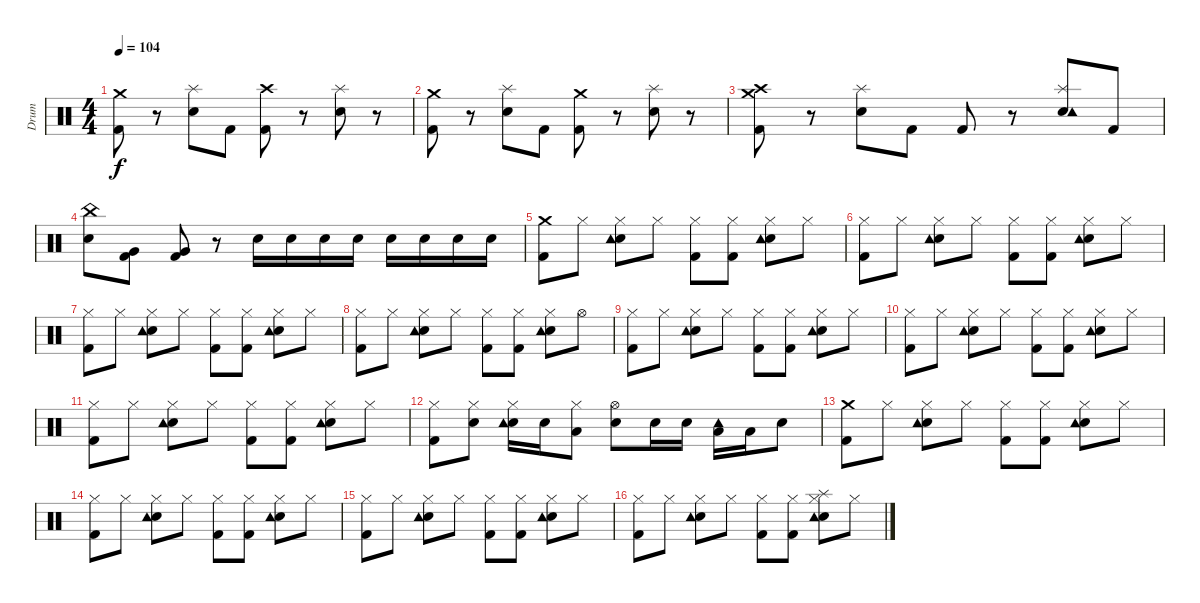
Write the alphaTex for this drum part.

\track ("Drum" "Drum") {instrument percussion}
\staff {score}
\articulation defaults
\ts (4 4)
\tempo 104
\clef neutral
\ks c
("Crash medium (hit)" "Kick (hit) 2").8{dy f} r.8 ("Snare (hit) 2" "Splash (hit)").8 "Kick (hit) 2".8 ("Crash high (hit)" "Kick (hit) 2").8 r.8 ("Snare (hit) 2" "Splash (hit)").8 r.8 |
("Crash medium (hit)" "Kick (hit) 2").8 r.8 ("Snare (hit) 2" "Splash (hit)").8 "Kick (hit) 2".8 ("Crash medium (hit)" "Kick (hit) 2").8 r.8 ("Snare (hit) 2" "Splash (hit)").8 r.8 |
("Crash medium (hit)" "Crash high (hit)" "Kick (hit) 2").8 r.8 ("Snare (hit) 2" "Splash (hit)").8 "Kick (hit) 2".8 "Kick (hit) 2".8 r.8 ("Snare (hit) 2" "Splash (hit)" "Tambourine (hit)").8 "Kick (hit) 2".8 |
("Snare (hit) 2" "China (hit)").8 ("Very Low Tom (hit)" "Kick (hit) 2").8 ("Very Low Tom (hit)" "Kick (hit) 2").8 r.8 "Snare (hit) 2".16 "Snare (hit) 2".16 "Snare (hit) 2".16 "Snare (hit) 2".16 "Snare (hit) 2".16 "Snare (hit) 2".16 "Snare (hit) 2".16 "Snare (hit) 2".16 |
("Crash medium (hit)" "Kick (hit) 2").8 "Hi-Hat (closed)".8 ("Snare (hit) 2" "Hi-Hat (closed)" "Tambourine (hit)").8 "Hi-Hat (closed)".8 ("Hi-Hat (closed)" "Kick (hit) 2").8 ("Hi-Hat (closed)" "Kick (hit) 2").8 ("Snare (hit) 2" "Hi-Hat (closed)" "Tambourine (hit)").8 "Hi-Hat (closed)".8 |
("Hi-Hat (closed)" "Kick (hit) 2").8 "Hi-Hat (closed)".8 ("Snare (hit) 2" "Hi-Hat (closed)" "Tambourine (hit)").8 "Hi-Hat (closed)".8 ("Hi-Hat (closed)" "Kick (hit) 2").8 ("Hi-Hat (closed)" "Kick (hit) 2").8 ("Snare (hit) 2" "Hi-Hat (closed)" "Tambourine (hit)").8 "Hi-Hat (closed)".8 |
("Hi-Hat (closed)" "Kick (hit) 2").8 "Hi-Hat (closed)".8 ("Snare (hit) 2" "Hi-Hat (closed)" "Tambourine (hit)").8 "Hi-Hat (closed)".8 ("Hi-Hat (closed)" "Kick (hit) 2").8 ("Hi-Hat (closed)" "Kick (hit) 2").8 ("Snare (hit) 2" "Hi-Hat (closed)" "Tambourine (hit)").8 "Hi-Hat (closed)".8 |
("Hi-Hat (closed)" "Kick (hit) 2").8 "Hi-Hat (closed)".8 ("Snare (hit) 2" "Hi-Hat (closed)" "Tambourine (hit)").8 "Hi-Hat (closed)".8 ("Hi-Hat (closed)" "Kick (hit) 2").8 ("Hi-Hat (closed)" "Kick (hit) 2").8 ("Snare (hit) 2" "Hi-Hat (closed)" "Tambourine (hit)").8 "Hi-Hat (open)".8 |
("Hi-Hat (closed)" "Kick (hit) 2").8 "Hi-Hat (closed)".8 ("Snare (hit) 2" "Hi-Hat (closed)" "Tambourine (hit)").8 "Hi-Hat (closed)".8 ("Hi-Hat (closed)" "Kick (hit) 2").8 ("Hi-Hat (closed)" "Kick (hit) 2").8 ("Snare (hit) 2" "Hi-Hat (closed)" "Tambourine (hit)").8 "Hi-Hat (closed)".8 |
("Hi-Hat (closed)" "Kick (hit) 2").8 "Hi-Hat (closed)".8 ("Snare (hit) 2" "Hi-Hat (closed)" "Tambourine (hit)").8 "Hi-Hat (closed)".8 ("Hi-Hat (closed)" "Kick (hit) 2").8 ("Hi-Hat (closed)" "Kick (hit) 2").8 ("Snare (hit) 2" "Hi-Hat (closed)" "Tambourine (hit)").8 "Hi-Hat (closed)".8 |
("Hi-Hat (closed)" "Kick (hit) 2").8 "Hi-Hat (closed)".8 ("Snare (hit) 2" "Hi-Hat (closed)" "Tambourine (hit)").8 "Hi-Hat (closed)".8 ("Hi-Hat (closed)" "Kick (hit) 2").8 ("Hi-Hat (closed)" "Kick (hit) 2").8 ("Snare (hit) 2" "Hi-Hat (closed)" "Tambourine (hit)").8 "Hi-Hat (closed)".8 |
("Hi-Hat (closed)" "Kick (hit) 2").8 ("Snare (hit) 2" "Hi-Hat (closed)").8 ("Snare (hit) 2" "Hi-Hat (closed)" "Tambourine (hit)").16 "Snare (hit) 2".16 ("Low Tom (hit)" "Hi-Hat (closed)").8 ("Snare (hit) 2" "Hi-Hat (open)").8 "Snare (hit) 2".16 "Snare (hit) 2".16 ("Low Tom (hit)" "Tambourine (hit)").16 "Low Tom (hit)".16 "Snare (hit) 2".8 |
("Crash medium (hit)" "Kick (hit) 2").8 "Hi-Hat (closed)".8 ("Snare (hit) 2" "Hi-Hat (closed)" "Tambourine (hit)").8 "Hi-Hat (closed)".8 ("Hi-Hat (closed)" "Kick (hit) 2").8 ("Hi-Hat (closed)" "Kick (hit) 2").8 ("Snare (hit) 2" "Hi-Hat (closed)" "Tambourine (hit)").8 "Hi-Hat (closed)".8 |
("Hi-Hat (closed)" "Kick (hit) 2").8 "Hi-Hat (closed)".8 ("Snare (hit) 2" "Hi-Hat (closed)" "Tambourine (hit)").8 "Hi-Hat (closed)".8 ("Hi-Hat (closed)" "Kick (hit) 2").8 ("Hi-Hat (closed)" "Kick (hit) 2").8 ("Snare (hit) 2" "Hi-Hat (closed)" "Tambourine (hit)").8 "Hi-Hat (closed)".8 |
("Hi-Hat (closed)" "Kick (hit) 2").8 "Hi-Hat (closed)".8 ("Snare (hit) 2" "Hi-Hat (closed)" "Tambourine (hit)").8 "Hi-Hat (closed)".8 ("Hi-Hat (closed)" "Kick (hit) 2").8 ("Hi-Hat (closed)" "Kick (hit) 2").8 ("Snare (hit) 2" "Hi-Hat (closed)" "Tambourine (hit)").8 "Hi-Hat (closed)".8 |
("Hi-Hat (closed)" "Kick (hit) 2").8 "Hi-Hat (closed)".8 ("Snare (hit) 2" "Hi-Hat (closed)" "Tambourine (hit)").8 "Hi-Hat (closed)".8 ("Hi-Hat (closed)" "Kick (hit) 2").8 ("Hi-Hat (closed)" "Kick (hit) 2").8 ("Snare (hit) 2" "Hi-Hat (closed)" "Tambourine (hit)" "Splash (hit)").8 "Hi-Hat (closed)".8
